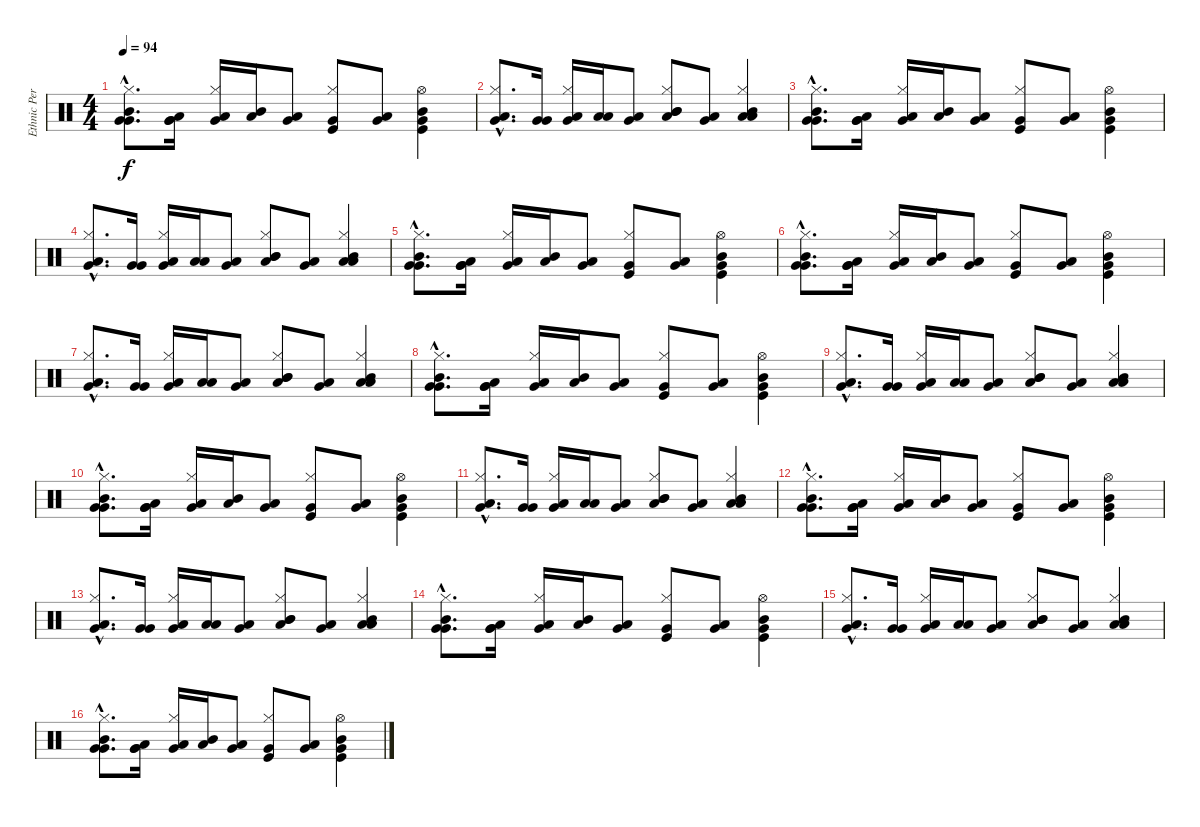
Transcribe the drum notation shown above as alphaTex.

\track ("Ethnic Percussion" "Ethnic Per") {instrument percussion}
\staff {score}
\articulation defaults
\ts (4 4)
\tempo 94
\clef neutral
\ks c
("Very Low Tom (hit)"{hac} "Very Low Tom (hit)"{hac} "Mid Tom (hit)"{hac} "Hi-Hat (closed)"{hac}).8{d dy f} ("Very Low Tom (hit)" "Very Low Tom (hit)" "Low Floor Tom (hit)").16 ("Very Low Tom (hit)" "Low Floor Tom (hit)" "Hi-Hat (closed)").16 ("Mid Tom (hit)" "Low Tom (hit)").16 ("Very Low Tom (hit)" "Low Tom (hit)").8 ("Kick (hit)" "Very Low Tom (hit)" "Hi-Hat (closed)").8 ("Low Tom (hit)" "Very Low Tom (hit)").8 ("Very Low Tom (hit)" "Kick (hit)" "Hi-Hat (open)" "Mid Tom (hit)").4 |
("Very Low Tom (hit)"{hac} "Low Floor Tom (hit)"{hac} "Hi-Hat (closed)"{hac}).8{d} ("Very Low Tom (hit)" "Very Low Tom (hit)").16 ("Very Low Tom (hit)" "Low Floor Tom (hit)" "Hi-Hat (closed)").16 ("Low Tom (hit)" "Low Tom (hit)").16 ("Very Low Tom (hit)" "Low Floor Tom (hit)").8 ("Mid Tom (hit)" "Low Tom (hit)" "Mid Tom (hit)" "Hi-Hat (closed)").8 ("Low Tom (hit)" "Very Low Tom (hit)").8 ("Mid Tom (hit)" "Low Floor Tom (hit)" "Low Tom (hit)" "Hi-Hat (closed)").4 |
("Very Low Tom (hit)"{hac} "Very Low Tom (hit)"{hac} "Mid Tom (hit)"{hac} "Hi-Hat (closed)"{hac}).8{d} ("Very Low Tom (hit)" "Very Low Tom (hit)" "Low Floor Tom (hit)").16 ("Very Low Tom (hit)" "Low Floor Tom (hit)" "Hi-Hat (closed)").16 ("Mid Tom (hit)" "Low Tom (hit)").16 ("Very Low Tom (hit)" "Low Tom (hit)").8 ("Kick (hit)" "Very Low Tom (hit)" "Hi-Hat (closed)").8 ("Low Tom (hit)" "Very Low Tom (hit)").8 ("Very Low Tom (hit)" "Kick (hit)" "Hi-Hat (open)" "Mid Tom (hit)").4 |
("Very Low Tom (hit)"{hac} "Low Floor Tom (hit)"{hac} "Hi-Hat (closed)"{hac}).8{d} ("Very Low Tom (hit)" "Very Low Tom (hit)").16 ("Very Low Tom (hit)" "Low Floor Tom (hit)" "Hi-Hat (closed)").16 ("Low Tom (hit)" "Low Tom (hit)").16 ("Very Low Tom (hit)" "Low Floor Tom (hit)").8 ("Mid Tom (hit)" "Low Tom (hit)" "Mid Tom (hit)" "Hi-Hat (closed)").8 ("Low Tom (hit)" "Very Low Tom (hit)").8 ("Mid Tom (hit)" "Low Floor Tom (hit)" "Low Tom (hit)" "Hi-Hat (closed)").4 |
("Very Low Tom (hit)"{hac} "Very Low Tom (hit)"{hac} "Mid Tom (hit)"{hac} "Hi-Hat (closed)"{hac}).8{d} ("Very Low Tom (hit)" "Very Low Tom (hit)" "Low Floor Tom (hit)").16 ("Very Low Tom (hit)" "Low Floor Tom (hit)" "Hi-Hat (closed)").16 ("Mid Tom (hit)" "Low Tom (hit)").16 ("Very Low Tom (hit)" "Low Tom (hit)").8 ("Kick (hit)" "Very Low Tom (hit)" "Hi-Hat (closed)").8 ("Low Tom (hit)" "Very Low Tom (hit)").8 ("Very Low Tom (hit)" "Kick (hit)" "Hi-Hat (open)" "Mid Tom (hit)").4 |
("Very Low Tom (hit)"{hac} "Very Low Tom (hit)"{hac} "Mid Tom (hit)"{hac} "Hi-Hat (closed)"{hac}).8{d} ("Very Low Tom (hit)" "Very Low Tom (hit)" "Low Floor Tom (hit)").16 ("Very Low Tom (hit)" "Low Floor Tom (hit)" "Hi-Hat (closed)").16 ("Mid Tom (hit)" "Low Tom (hit)").16 ("Very Low Tom (hit)" "Low Tom (hit)").8 ("Kick (hit)" "Very Low Tom (hit)" "Hi-Hat (closed)").8 ("Low Tom (hit)" "Very Low Tom (hit)").8 ("Very Low Tom (hit)" "Kick (hit)" "Hi-Hat (open)" "Mid Tom (hit)").4 |
("Very Low Tom (hit)"{hac} "Low Floor Tom (hit)"{hac} "Hi-Hat (closed)"{hac}).8{d} ("Very Low Tom (hit)" "Very Low Tom (hit)").16 ("Very Low Tom (hit)" "Low Floor Tom (hit)" "Hi-Hat (closed)").16 ("Low Tom (hit)" "Low Tom (hit)").16 ("Very Low Tom (hit)" "Low Floor Tom (hit)").8 ("Mid Tom (hit)" "Low Tom (hit)" "Mid Tom (hit)" "Hi-Hat (closed)").8 ("Low Tom (hit)" "Very Low Tom (hit)").8 ("Mid Tom (hit)" "Low Floor Tom (hit)" "Low Tom (hit)" "Hi-Hat (closed)").4 |
("Very Low Tom (hit)"{hac} "Very Low Tom (hit)"{hac} "Mid Tom (hit)"{hac} "Hi-Hat (closed)"{hac}).8{d} ("Very Low Tom (hit)" "Very Low Tom (hit)" "Low Floor Tom (hit)").16 ("Very Low Tom (hit)" "Low Floor Tom (hit)" "Hi-Hat (closed)").16 ("Mid Tom (hit)" "Low Tom (hit)").16 ("Very Low Tom (hit)" "Low Tom (hit)").8 ("Kick (hit)" "Very Low Tom (hit)" "Hi-Hat (closed)").8 ("Low Tom (hit)" "Very Low Tom (hit)").8 ("Very Low Tom (hit)" "Kick (hit)" "Hi-Hat (open)" "Mid Tom (hit)").4 |
("Very Low Tom (hit)"{hac} "Low Floor Tom (hit)"{hac} "Hi-Hat (closed)"{hac}).8{d} ("Very Low Tom (hit)" "Very Low Tom (hit)").16 ("Very Low Tom (hit)" "Low Floor Tom (hit)" "Hi-Hat (closed)").16 ("Low Tom (hit)" "Low Tom (hit)").16 ("Very Low Tom (hit)" "Low Floor Tom (hit)").8 ("Mid Tom (hit)" "Low Tom (hit)" "Mid Tom (hit)" "Hi-Hat (closed)").8 ("Low Tom (hit)" "Very Low Tom (hit)").8 ("Mid Tom (hit)" "Low Floor Tom (hit)" "Low Tom (hit)" "Hi-Hat (closed)").4 |
("Very Low Tom (hit)"{hac} "Very Low Tom (hit)"{hac} "Mid Tom (hit)"{hac} "Hi-Hat (closed)"{hac}).8{d} ("Very Low Tom (hit)" "Very Low Tom (hit)" "Low Floor Tom (hit)").16 ("Very Low Tom (hit)" "Low Floor Tom (hit)" "Hi-Hat (closed)").16 ("Mid Tom (hit)" "Low Tom (hit)").16 ("Very Low Tom (hit)" "Low Tom (hit)").8 ("Kick (hit)" "Very Low Tom (hit)" "Hi-Hat (closed)").8 ("Low Tom (hit)" "Very Low Tom (hit)").8 ("Very Low Tom (hit)" "Kick (hit)" "Hi-Hat (open)" "Mid Tom (hit)").4 |
("Very Low Tom (hit)"{hac} "Low Floor Tom (hit)"{hac} "Hi-Hat (closed)"{hac}).8{d} ("Very Low Tom (hit)" "Very Low Tom (hit)").16 ("Very Low Tom (hit)" "Low Floor Tom (hit)" "Hi-Hat (closed)").16 ("Low Tom (hit)" "Low Tom (hit)").16 ("Very Low Tom (hit)" "Low Floor Tom (hit)").8 ("Mid Tom (hit)" "Low Tom (hit)" "Mid Tom (hit)" "Hi-Hat (closed)").8 ("Low Tom (hit)" "Very Low Tom (hit)").8 ("Mid Tom (hit)" "Low Floor Tom (hit)" "Low Tom (hit)" "Hi-Hat (closed)").4 |
("Very Low Tom (hit)"{hac} "Very Low Tom (hit)"{hac} "Mid Tom (hit)"{hac} "Hi-Hat (closed)"{hac}).8{d} ("Very Low Tom (hit)" "Very Low Tom (hit)" "Low Floor Tom (hit)").16 ("Very Low Tom (hit)" "Low Floor Tom (hit)" "Hi-Hat (closed)").16 ("Mid Tom (hit)" "Low Tom (hit)").16 ("Very Low Tom (hit)" "Low Tom (hit)").8 ("Kick (hit)" "Very Low Tom (hit)" "Hi-Hat (closed)").8 ("Low Tom (hit)" "Very Low Tom (hit)").8 ("Very Low Tom (hit)" "Kick (hit)" "Hi-Hat (open)" "Mid Tom (hit)").4 |
("Very Low Tom (hit)"{hac} "Low Floor Tom (hit)"{hac} "Hi-Hat (closed)"{hac}).8{d} ("Very Low Tom (hit)" "Very Low Tom (hit)").16 ("Very Low Tom (hit)" "Low Floor Tom (hit)" "Hi-Hat (closed)").16 ("Low Tom (hit)" "Low Tom (hit)").16 ("Very Low Tom (hit)" "Low Floor Tom (hit)").8 ("Mid Tom (hit)" "Low Tom (hit)" "Mid Tom (hit)" "Hi-Hat (closed)").8 ("Low Tom (hit)" "Very Low Tom (hit)").8 ("Mid Tom (hit)" "Low Floor Tom (hit)" "Low Tom (hit)" "Hi-Hat (closed)").4 |
("Very Low Tom (hit)"{hac} "Very Low Tom (hit)"{hac} "Mid Tom (hit)"{hac} "Hi-Hat (closed)"{hac}).8{d} ("Very Low Tom (hit)" "Very Low Tom (hit)" "Low Floor Tom (hit)").16 ("Very Low Tom (hit)" "Low Floor Tom (hit)" "Hi-Hat (closed)").16 ("Mid Tom (hit)" "Low Tom (hit)").16 ("Very Low Tom (hit)" "Low Tom (hit)").8 ("Kick (hit)" "Very Low Tom (hit)" "Hi-Hat (closed)").8 ("Low Tom (hit)" "Very Low Tom (hit)").8 ("Very Low Tom (hit)" "Kick (hit)" "Hi-Hat (open)" "Mid Tom (hit)").4 |
("Very Low Tom (hit)"{hac} "Low Floor Tom (hit)"{hac} "Hi-Hat (closed)"{hac}).8{d} ("Very Low Tom (hit)" "Very Low Tom (hit)").16 ("Very Low Tom (hit)" "Low Floor Tom (hit)" "Hi-Hat (closed)").16 ("Low Tom (hit)" "Low Tom (hit)").16 ("Very Low Tom (hit)" "Low Floor Tom (hit)").8 ("Mid Tom (hit)" "Low Tom (hit)" "Mid Tom (hit)" "Hi-Hat (closed)").8 ("Low Tom (hit)" "Very Low Tom (hit)").8 ("Mid Tom (hit)" "Low Floor Tom (hit)" "Low Tom (hit)" "Hi-Hat (closed)").4 |
("Very Low Tom (hit)"{hac} "Very Low Tom (hit)"{hac} "Mid Tom (hit)"{hac} "Hi-Hat (closed)"{hac}).8{d} ("Very Low Tom (hit)" "Very Low Tom (hit)" "Low Floor Tom (hit)").16 ("Very Low Tom (hit)" "Low Floor Tom (hit)" "Hi-Hat (closed)").16 ("Mid Tom (hit)" "Low Tom (hit)").16 ("Very Low Tom (hit)" "Low Tom (hit)").8 ("Kick (hit)" "Very Low Tom (hit)" "Hi-Hat (closed)").8 ("Low Tom (hit)" "Very Low Tom (hit)").8 ("Very Low Tom (hit)" "Kick (hit)" "Hi-Hat (open)" "Mid Tom (hit)").4
